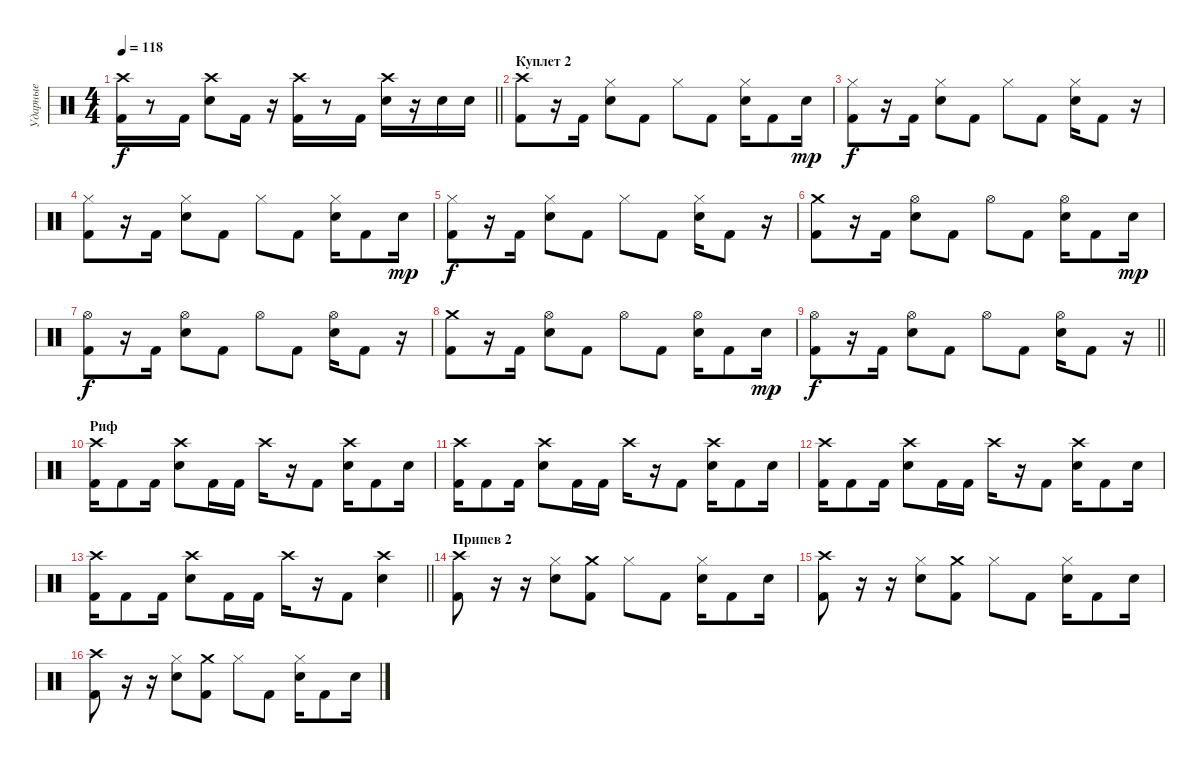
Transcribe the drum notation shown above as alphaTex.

\track ("Ударные" "Ударные") {instrument percussion}
\staff {score}
\articulation defaults
\ts (4 4)
\tempo 118
\clef neutral
\barLineRight lightlight
\ks c
("Crash high (hit)" "Kick (hit) 2").16{dy f} r.8 "Kick (hit) 2".16 ("Crash high (hit)" "Snare (hit) 2").8 "Kick (hit) 2".16 r.16 ("Crash high (hit)" "Kick (hit) 2").16 r.8 "Kick (hit) 2".16 ("Crash high (hit)" "Snare (hit) 2").16 r.16 "Snare (hit) 2".16 "Snare (hit) 2".16 |
\section ("" "Куплет 2")
("Crash high (hit)" "Kick (hit) 2").8 r.16 "Kick (hit) 2".16 ("Hi-Hat (closed)" "Snare (hit) 2").8 "Kick (hit) 2".8 "Hi-Hat (closed)".8 "Kick (hit) 2".8 ("Hi-Hat (closed)" "Snare (hit) 2").16 "Kick (hit) 2".8 "Snare (hit) 2".16{dy mp} |
("Hi-Hat (closed)" "Kick (hit) 2").8{dy f} r.16 "Kick (hit) 2".16 ("Hi-Hat (closed)" "Snare (hit) 2").8 "Kick (hit) 2".8 "Hi-Hat (closed)".8 "Kick (hit) 2".8 ("Hi-Hat (closed)" "Snare (hit) 2").16 "Kick (hit) 2".8 r.16 |
("Hi-Hat (closed)" "Kick (hit) 2").8 r.16 "Kick (hit) 2".16 ("Hi-Hat (closed)" "Snare (hit) 2").8 "Kick (hit) 2".8 "Hi-Hat (closed)".8 "Kick (hit) 2".8 ("Hi-Hat (closed)" "Snare (hit) 2").16 "Kick (hit) 2".8 "Snare (hit) 2".16{dy mp} |
("Hi-Hat (closed)" "Kick (hit) 2").8{dy f} r.16 "Kick (hit) 2".16 ("Hi-Hat (closed)" "Snare (hit) 2").8 "Kick (hit) 2".8 "Hi-Hat (closed)".8 "Kick (hit) 2".8 ("Hi-Hat (closed)" "Snare (hit) 2").16 "Kick (hit) 2".8 r.16 |
("Crash medium (hit)" "Kick (hit) 2").8 r.16 "Kick (hit) 2".16 ("Hi-Hat (open)" "Snare (hit) 2").8 "Kick (hit) 2".8 "Hi-Hat (open)".8 "Kick (hit) 2".8 ("Hi-Hat (open)" "Snare (hit) 2").16 "Kick (hit) 2".8 "Snare (hit) 2".16{dy mp} |
("Hi-Hat (open)" "Kick (hit) 2").8{dy f} r.16 "Kick (hit) 2".16 ("Hi-Hat (open)" "Snare (hit) 2").8 "Kick (hit) 2".8 "Hi-Hat (open)".8 "Kick (hit) 2".8 ("Hi-Hat (open)" "Snare (hit) 2").16 "Kick (hit) 2".8 r.16 |
("Crash medium (hit)" "Kick (hit) 2").8 r.16 "Kick (hit) 2".16 ("Hi-Hat (open)" "Snare (hit) 2").8 "Kick (hit) 2".8 "Hi-Hat (open)".8 "Kick (hit) 2".8 ("Hi-Hat (open)" "Snare (hit) 2").16 "Kick (hit) 2".8 "Snare (hit) 2".16{dy mp} |
\barLineRight lightlight
("Hi-Hat (open)" "Kick (hit) 2").8{dy f} r.16 "Kick (hit) 2".16 ("Hi-Hat (open)" "Snare (hit) 2").8 "Kick (hit) 2".8 "Hi-Hat (open)".8 "Kick (hit) 2".8 ("Hi-Hat (open)" "Snare (hit) 2").16 "Kick (hit) 2".8 r.16 |
\section ("" "Риф")
("Crash high (hit)" "Kick (hit) 2").16 "Kick (hit) 2".8 "Kick (hit) 2".16 ("Crash high (hit)" "Snare (hit) 2").8 "Kick (hit) 2".16 "Kick (hit) 2".16 "Crash high (hit)".16 r.16 "Kick (hit) 2".8 ("Crash high (hit)" "Snare (hit) 2").16 "Kick (hit) 2".8 "Snare (hit) 2".16 |
("Crash high (hit)" "Kick (hit) 2").16 "Kick (hit) 2".8 "Kick (hit) 2".16 ("Crash high (hit)" "Snare (hit) 2").8 "Kick (hit) 2".16 "Kick (hit) 2".16 "Crash high (hit)".16 r.16 "Kick (hit) 2".8 ("Crash high (hit)" "Snare (hit) 2").16 "Kick (hit) 2".8 "Snare (hit) 2".16 |
("Crash high (hit)" "Kick (hit) 2").16 "Kick (hit) 2".8 "Kick (hit) 2".16 ("Crash high (hit)" "Snare (hit) 2").8 "Kick (hit) 2".16 "Kick (hit) 2".16 "Crash high (hit)".16 r.16 "Kick (hit) 2".8 ("Crash high (hit)" "Snare (hit) 2").16 "Kick (hit) 2".8 "Snare (hit) 2".16 |
\barLineRight lightlight
("Crash high (hit)" "Kick (hit) 2").16 "Kick (hit) 2".8 "Kick (hit) 2".16 ("Crash high (hit)" "Snare (hit) 2").8 "Kick (hit) 2".16 "Kick (hit) 2".16 "Crash high (hit)".16 r.16 "Kick (hit) 2".8 ("Crash high (hit)" "Snare (hit) 2").4 |
\section ("" "Припев 2")
("Crash high (hit)" "Kick (hit) 2").8 r.16 r.16 ("Hi-Hat (closed)" "Snare (hit) 2").8 ("Crash medium (hit)" "Kick (hit) 2").8 "Hi-Hat (closed)".8 "Kick (hit) 2".8 ("Hi-Hat (closed)" "Snare (hit) 2").16 "Kick (hit) 2".8 "Snare (hit) 2".16 |
("Crash high (hit)" "Kick (hit) 2").8 r.16 r.16 ("Hi-Hat (closed)" "Snare (hit) 2").8 ("Crash medium (hit)" "Kick (hit) 2").8 "Hi-Hat (closed)".8 "Kick (hit) 2".8 ("Hi-Hat (closed)" "Snare (hit) 2").16 "Kick (hit) 2".8 "Snare (hit) 2".16 |
("Crash high (hit)" "Kick (hit) 2").8 r.16 r.16 ("Hi-Hat (closed)" "Snare (hit) 2").8 ("Crash medium (hit)" "Kick (hit) 2").8 "Hi-Hat (closed)".8 "Kick (hit) 2".8 ("Hi-Hat (closed)" "Snare (hit) 2").16 "Kick (hit) 2".8 "Snare (hit) 2".16
